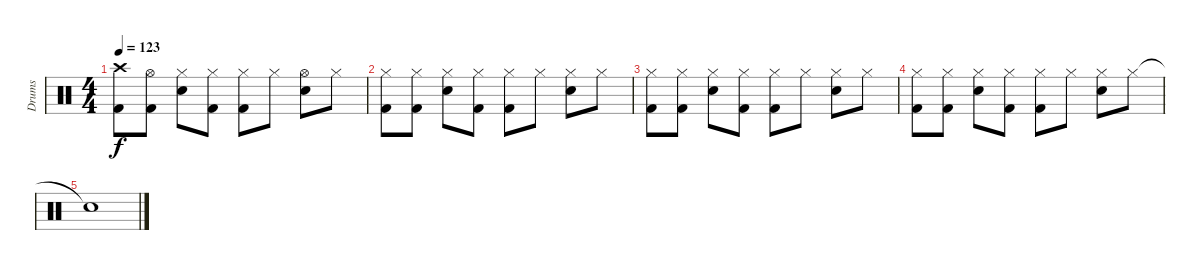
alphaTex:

\track ("Drums" "Drums") {instrument percussion}
\staff {score}
\articulation defaults
\ts (4 4)
\tempo 123
\clef neutral
\ks c
("Kick (hit) 2" "Crash high (hit)").8{dy f} ("Kick (hit) 2" "Hi-Hat (open)").8 ("Electric Snare (hit)" "Hi-Hat (closed)").8 ("Kick (hit) 2" "Hi-Hat (closed)").8 ("Kick (hit) 2" "Hi-Hat (closed)").8 "Hi-Hat (closed)".8 ("Electric Snare (hit)" "Hi-Hat (open)").8 "Hi-Hat (closed)".8 |
("Kick (hit) 2" "Hi-Hat (closed)").8 ("Kick (hit) 2" "Hi-Hat (closed)").8 ("Electric Snare (hit)" "Hi-Hat (closed)").8 ("Kick (hit) 2" "Hi-Hat (closed)").8 ("Kick (hit) 2" "Hi-Hat (closed)").8 "Hi-Hat (closed)".8 ("Electric Snare (hit)" "Hi-Hat (closed)").8 "Hi-Hat (closed)".8 |
("Kick (hit) 2" "Hi-Hat (closed)").8 ("Kick (hit) 2" "Hi-Hat (closed)").8 ("Electric Snare (hit)" "Hi-Hat (closed)").8 ("Kick (hit) 2" "Hi-Hat (closed)").8 ("Kick (hit) 2" "Hi-Hat (closed)").8 "Hi-Hat (closed)".8 ("Electric Snare (hit)" "Hi-Hat (closed)").8 "Hi-Hat (closed)".8 |
("Kick (hit) 2" "Hi-Hat (closed)").8 ("Kick (hit) 2" "Hi-Hat (closed)").8 ("Electric Snare (hit)" "Hi-Hat (closed)").8 ("Kick (hit) 2" "Hi-Hat (closed)").8 ("Kick (hit) 2" "Hi-Hat (closed)").8 "Hi-Hat (closed)".8 ("Electric Snare (hit)" "Hi-Hat (closed)").8 "Hi-Hat (closed)".8 |
"Snare (hit)"{t}.1
